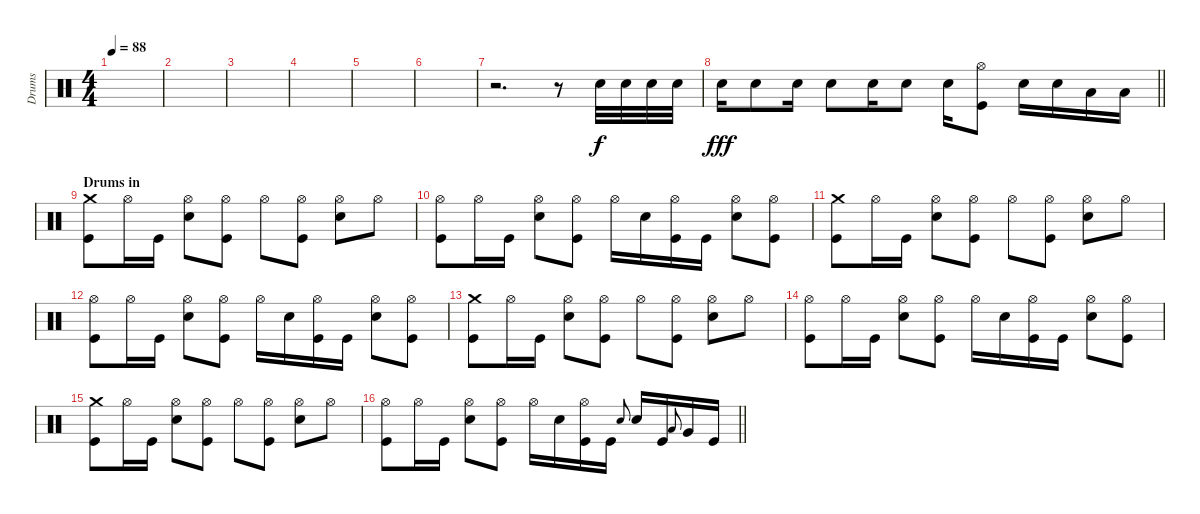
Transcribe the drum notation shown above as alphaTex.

\track ("Drums" "Drums") {instrument percussion}
\staff {score}
\articulation defaults
\ts (4 4)
\tempo 88
\clef neutral
\ks c
|
|
|
|
|
|
r.2{d} r.8 "Snare (hit) 2".32 "Snare (hit) 2".32 "Snare (hit) 2".32 "Snare (hit) 2".32 |
\barLineRight lightlight "Snare (hit) 2".16{dy fff} "Snare (hit) 2".8 "Snare (hit) 2".16 "Snare (hit) 2".8 "Snare (hit) 2".16 "Snare (hit) 2".8 "Snare (hit) 2".16
("Hi-Hat (open)" "Kick (hit)").8 "Snare (hit) 2".16 "Snare (hit) 2".16 "Low Floor Tom (hit)".16 "Low Floor Tom (hit)".16 |
\section ("" "Drums in")
("Crash medium (hit)" "Kick (hit)").8 "Hi-Hat (open)".16 "Kick (hit)".16 ("Hi-Hat (open)" "Snare (hit) 2").8 ("Hi-Hat (open)" "Kick (hit)").8 "Hi-Hat (open)".8 ("Hi-Hat (open)" "Kick (hit)").8 ("Hi-Hat (open)" "Snare (hit) 2").8 "Hi-Hat (open)".8 |
("Hi-Hat (open)" "Kick (hit)").8 "Hi-Hat (open)".16 "Kick (hit)".16 ("Hi-Hat (open)" "Snare (hit) 2").8 ("Hi-Hat (open)" "Kick (hit)").8 "Hi-Hat (open)".16 "Snare (hit) 2".16 ("Hi-Hat (open)" "Kick (hit)").16 "Kick (hit)".16 ("Hi-Hat (open)" "Snare (hit) 2").8 ("Hi-Hat (open)" "Kick (hit)").8 |
("Crash medium (hit)" "Kick (hit)").8 "Hi-Hat (open)".16 "Kick (hit)".16 ("Hi-Hat (open)" "Snare (hit) 2").8 ("Hi-Hat (open)" "Kick (hit)").8 "Hi-Hat (open)".8 ("Hi-Hat (open)" "Kick (hit)").8 ("Hi-Hat (open)" "Snare (hit) 2").8 "Hi-Hat (open)".8 |
("Hi-Hat (open)" "Kick (hit)").8 "Hi-Hat (open)".16 "Kick (hit)".16 ("Hi-Hat (open)" "Snare (hit) 2").8 ("Hi-Hat (open)" "Kick (hit)").8 "Hi-Hat (open)".16 "Snare (hit) 2".16 ("Hi-Hat (open)" "Kick (hit)").16 "Kick (hit)".16 ("Hi-Hat (open)" "Snare (hit) 2").8 ("Hi-Hat (open)" "Kick (hit)").8 |
("Crash medium (hit)" "Kick (hit)").8 "Hi-Hat (open)".16 "Kick (hit)".16 ("Hi-Hat (open)" "Snare (hit) 2").8 ("Hi-Hat (open)" "Kick (hit)").8 "Hi-Hat (open)".8 ("Hi-Hat (open)" "Kick (hit)").8 ("Hi-Hat (open)" "Snare (hit) 2").8 "Hi-Hat (open)".8 |
("Hi-Hat (open)" "Kick (hit)").8 "Hi-Hat (open)".16 "Kick (hit)".16 ("Hi-Hat (open)" "Snare (hit) 2").8 ("Hi-Hat (open)" "Kick (hit)").8 "Hi-Hat (open)".16 "Snare (hit) 2".16 ("Hi-Hat (open)" "Kick (hit)").16 "Kick (hit)".16 ("Hi-Hat (open)" "Snare (hit) 2").8 ("Hi-Hat (open)" "Kick (hit)").8 |
("Crash medium (hit)" "Kick (hit)").8 "Hi-Hat (open)".16 "Kick (hit)".16 ("Hi-Hat (open)" "Snare (hit) 2").8 ("Hi-Hat (open)" "Kick (hit)").8 "Hi-Hat (open)".8 ("Hi-Hat (open)" "Kick (hit)").8 ("Hi-Hat (open)" "Snare (hit) 2").8 "Hi-Hat (open)".8 |
\barLineRight lightlight
("Hi-Hat (open)" "Kick (hit)").8 "Hi-Hat (open)".16 "Kick (hit)".16 ("Hi-Hat (open)" "Snare (hit) 2").8 ("Hi-Hat (open)" "Kick (hit)").8 "Hi-Hat (open)".16 "Snare (hit) 2".16 ("Hi-Hat (open)" "Kick (hit)").16 "Kick (hit)".16 "Snare (hit) 2".8{gr onbeat} "Snare (hit) 2".16 "Kick (hit)".16 "Low Floor Tom (hit)".8{gr onbeat} "Very Low Tom (hit)".16 "Kick (hit)".16
